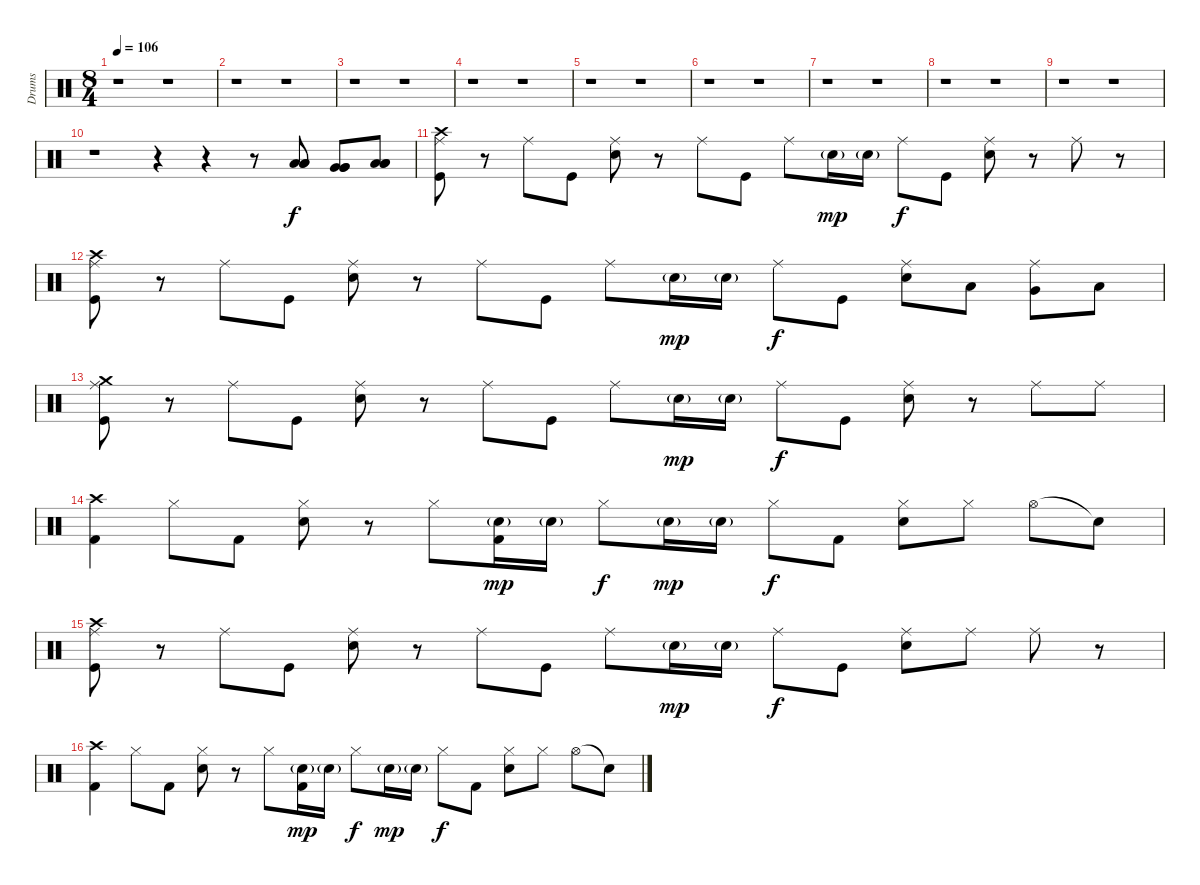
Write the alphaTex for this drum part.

\track ("Drums" "Drums") {instrument percussion}
\staff {score}
\articulation defaults
\ts (8 4)
\tempo 106
\clef neutral
\ks c
r.1{dy f} r.1 |
r.1 r.1 |
r.1 r.1 |
r.1 r.1 |
r.1 r.1 |
r.1 r.1 |
r.1 r.1 |
r.1 r.1 |
r.1 r.1 |
r.1 r.4 r.4 r.8 ("Low Tom (hit)" "Low Tom (hit)" "Low Tom (hit)").8 ("Very Low Tom (hit)" "Very Low Tom (hit)" "Very Low Tom (hit)").8 ("Low Floor Tom (hit)" "Low Floor Tom (hit)" "Low Floor Tom (hit)").8 |
("Ride (middle)" "Crash high (hit)" "Kick (hit)").8 r.8 "Ride (middle)".8 "Kick (hit)".8 ("Ride (middle)" "Electric Snare (hit)").8 r.8 "Ride (middle)".8 "Kick (hit)".8 "Ride (middle)".8 "Electric Snare (hit)"{g}.16{dy mp} "Electric Snare (hit)"{g}.16 "Ride (middle)".8{dy f} "Kick (hit)".8 ("Ride (middle)" "Electric Snare (hit)").8 r.8 "Ride (middle)".8 r.8 |
("Ride (middle)" "Crash high (hit)" "Kick (hit)").8 r.8 "Ride (middle)".8 "Kick (hit)".8 ("Ride (middle)" "Electric Snare (hit)").8 r.8 "Ride (middle)".8 "Kick (hit)".8 "Ride (middle)".8 "Electric Snare (hit)"{g}.16{dy mp} "Electric Snare (hit)"{g}.16 "Ride (middle)".8{dy f} "Kick (hit)".8 ("Ride (middle)" "Electric Snare (hit)").8 "Low Tom (hit)".8 ("Ride (middle)" "Very Low Tom (hit)").8 "Low Floor Tom (hit)".8 |
("Ride (middle)" "Crash medium (hit)" "Kick (hit)").8 r.8 "Ride (middle)".8 "Kick (hit)".8 ("Ride (middle)" "Electric Snare (hit)").8 r.8 "Ride (middle)".8 "Kick (hit)".8 "Ride (middle)".8 "Electric Snare (hit)"{g}.16{dy mp} "Electric Snare (hit)"{g}.16 "Ride (middle)".8{dy f} "Kick (hit)".8 ("Ride (middle)" "Electric Snare (hit)").8 r.8 "Ride (middle)".8 "Ride (middle)".8 |
("Crash high (hit)" "Kick (hit) 2").4 "Hi-Hat (closed)".8 "Kick (hit) 2".8 ("Hi-Hat (closed)" "Electric Snare (hit)").8 r.8 "Hi-Hat (closed)".8 ("Electric Snare (hit)"{g} "Kick (hit) 2").16{dy mp} "Electric Snare (hit)"{g}.16 "Hi-Hat (closed)".8{dy f} "Electric Snare (hit)"{g}.16{dy mp} "Electric Snare (hit)"{g}.16 "Hi-Hat (closed)".8{dy f} "Kick (hit) 2".8 ("Hi-Hat (closed)" "Electric Snare (hit)").8 "Hi-Hat (closed)".8 "Hi-Hat (open)".8 "Snare (hit)"{t}.8 |
("Ride (middle)" "Crash high (hit)" "Kick (hit)").8 r.8 "Ride (middle)".8 "Kick (hit)".8 ("Ride (middle)" "Electric Snare (hit)").8 r.8 "Ride (middle)".8 "Kick (hit)".8 "Ride (middle)".8 "Electric Snare (hit)"{g}.16{dy mp} "Electric Snare (hit)"{g}.16 "Ride (middle)".8{dy f} "Kick (hit)".8 ("Ride (middle)" "Electric Snare (hit)").8 "Ride (middle)".8 "Ride (middle)".8 r.8 |
("Crash high (hit)" "Kick (hit) 2").4 "Hi-Hat (closed)".8 "Kick (hit) 2".8 ("Hi-Hat (closed)" "Electric Snare (hit)").8 r.8 "Hi-Hat (closed)".8 ("Electric Snare (hit)"{g} "Kick (hit) 2").16{dy mp} "Electric Snare (hit)"{g}.16 "Hi-Hat (closed)".8{dy f} "Electric Snare (hit)"{g}.16{dy mp} "Electric Snare (hit)"{g}.16 "Hi-Hat (closed)".8{dy f} "Kick (hit) 2".8 ("Hi-Hat (closed)" "Electric Snare (hit)").8 "Hi-Hat (closed)".8 "Hi-Hat (open)".8 "Snare (hit)"{t}.8
